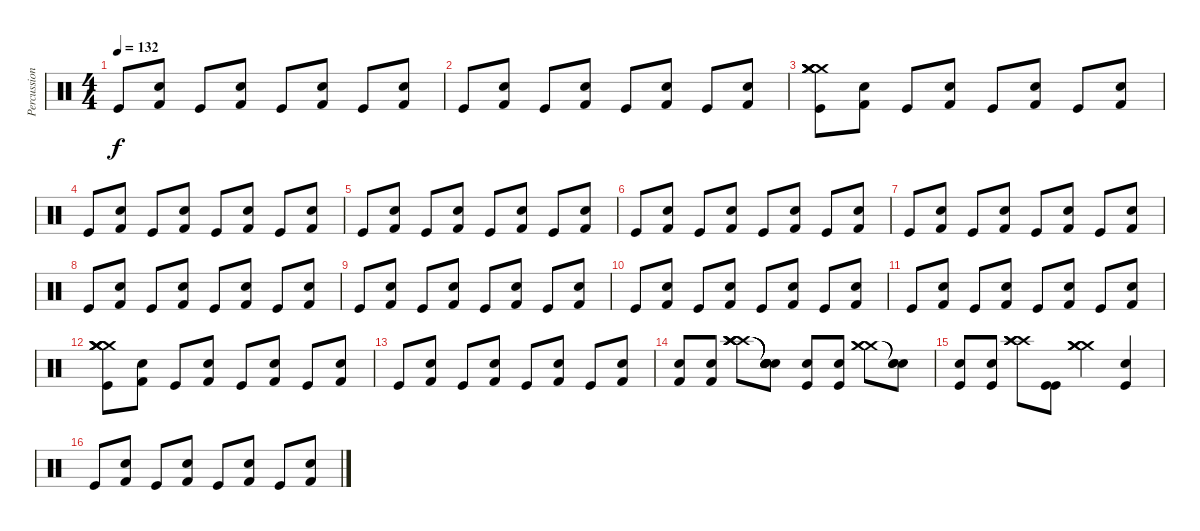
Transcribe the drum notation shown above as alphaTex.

\track ("Percussion" "Percussion") {instrument percussion}
\staff {score}
\articulation defaults
\ts (4 4)
\tempo 132
\clef neutral
\ks c "Kick (hit)".8{dy f}
("Electric Snare (hit)" "Kick (hit) 2").8 "Kick (hit)".8 ("Electric Snare (hit)" "Kick (hit) 2").8 "Kick (hit)".8 ("Electric Snare (hit)" "Kick (hit) 2").8 "Kick (hit)".8 ("Electric Snare (hit)" "Kick (hit) 2").8 |
"Kick (hit)".8 ("Electric Snare (hit)" "Kick (hit) 2").8 "Kick (hit)".8 ("Electric Snare (hit)" "Kick (hit) 2").8 "Kick (hit)".8 ("Electric Snare (hit)" "Kick (hit) 2").8 "Kick (hit)".8 ("Electric Snare (hit)" "Kick (hit) 2").8 |
("Kick (hit)" "Crash medium (hit)" "Crash medium (hit)" "Crash medium (hit)" "Crash medium (hit)" "Crash medium (hit)").8 ("Electric Snare (hit)" "Kick (hit) 2").8 "Kick (hit)".8 ("Electric Snare (hit)" "Kick (hit) 2").8 "Kick (hit)".8 ("Electric Snare (hit)" "Kick (hit) 2").8 "Kick (hit)".8 ("Electric Snare (hit)" "Kick (hit) 2").8 |
"Kick (hit)".8 ("Electric Snare (hit)" "Kick (hit) 2").8 "Kick (hit)".8 ("Electric Snare (hit)" "Kick (hit) 2").8 "Kick (hit)".8 ("Electric Snare (hit)" "Kick (hit) 2").8 "Kick (hit)".8 ("Electric Snare (hit)" "Kick (hit) 2").8 |
"Kick (hit)".8 ("Electric Snare (hit)" "Kick (hit) 2").8 "Kick (hit)".8 ("Electric Snare (hit)" "Kick (hit) 2").8 "Kick (hit)".8 ("Electric Snare (hit)" "Kick (hit) 2").8 "Kick (hit)".8 ("Electric Snare (hit)" "Kick (hit) 2").8 |
"Kick (hit)".8 ("Electric Snare (hit)" "Kick (hit) 2").8 "Kick (hit)".8 ("Electric Snare (hit)" "Kick (hit) 2").8 "Kick (hit)".8 ("Electric Snare (hit)" "Kick (hit) 2").8 "Kick (hit)".8 ("Electric Snare (hit)" "Kick (hit) 2").8 |
"Kick (hit)".8 ("Electric Snare (hit)" "Kick (hit) 2").8 "Kick (hit)".8 ("Electric Snare (hit)" "Kick (hit) 2").8 "Kick (hit)".8 ("Electric Snare (hit)" "Kick (hit) 2").8 "Kick (hit)".8 ("Electric Snare (hit)" "Kick (hit) 2").8 |
"Kick (hit)".8 ("Electric Snare (hit)" "Kick (hit) 2").8 "Kick (hit)".8 ("Electric Snare (hit)" "Kick (hit) 2").8 "Kick (hit)".8 ("Electric Snare (hit)" "Kick (hit) 2").8 "Kick (hit)".8 ("Electric Snare (hit)" "Kick (hit) 2").8 |
"Kick (hit)".8 ("Electric Snare (hit)" "Kick (hit) 2").8 "Kick (hit)".8 ("Electric Snare (hit)" "Kick (hit) 2").8 "Kick (hit)".8 ("Electric Snare (hit)" "Kick (hit) 2").8 "Kick (hit)".8 ("Electric Snare (hit)" "Kick (hit) 2").8 |
"Kick (hit)".8 ("Electric Snare (hit)" "Kick (hit) 2").8 "Kick (hit)".8 ("Electric Snare (hit)" "Kick (hit) 2").8 "Kick (hit)".8 ("Electric Snare (hit)" "Kick (hit) 2").8 "Kick (hit)".8 ("Electric Snare (hit)" "Kick (hit) 2").8 |
"Kick (hit)".8 ("Electric Snare (hit)" "Kick (hit) 2").8 "Kick (hit)".8 ("Electric Snare (hit)" "Kick (hit) 2").8 "Kick (hit)".8 ("Electric Snare (hit)" "Kick (hit) 2").8 "Kick (hit)".8 ("Electric Snare (hit)" "Kick (hit) 2").8 |
("Kick (hit)" "Crash medium (hit)" "Crash medium (hit)" "Crash medium (hit)" "Crash medium (hit)" "Crash medium (hit)").8 ("Electric Snare (hit)" "Kick (hit) 2").8 "Kick (hit)".8 ("Electric Snare (hit)" "Kick (hit) 2").8 "Kick (hit)".8 ("Electric Snare (hit)" "Kick (hit) 2").8 "Kick (hit)".8 ("Electric Snare (hit)" "Kick (hit) 2").8 |
"Kick (hit)".8 ("Electric Snare (hit)" "Kick (hit) 2").8 "Kick (hit)".8 ("Electric Snare (hit)" "Kick (hit) 2").8 "Kick (hit)".8 ("Electric Snare (hit)" "Kick (hit) 2").8 "Kick (hit)".8 ("Electric Snare (hit)" "Kick (hit) 2").8 |
("Electric Snare (hit)" "Kick (hit) 2").8 ("Electric Snare (hit)" "Kick (hit) 2").8 ("Crash high (hit)" "Crash high (hit)" "Crash high (hit)" "Crash high (hit)" "Crash high (hit)" "Crash high (hit)").8 ("Snare (hit)"{t} "Snare (hit)"{t} "Snare (hit)"{t} "Snare (hit)"{t} "Snare (hit)"{t} "Snare (hit)"{t}).8 ("Electric Snare (hit)" "Kick (hit)").8 ("Electric Snare (hit)" "Kick (hit)").8 ("Crash medium (hit)" "Crash medium (hit)" "Crash medium (hit)").8 ("Snare (hit)"{t} "Snare (hit)"{t} "Snare (hit)"{t}).8 |
("Electric Snare (hit)" "Kick (hit)").8 ("Kick (hit)" "Electric Snare (hit)").8 ("Crash high (hit)" "Crash high (hit)" "Crash high (hit)" "Crash high (hit)").8 ("Kick (hit)" "Kick (hit)").8 ("Crash medium (hit)" "Crash medium (hit)" "Crash medium (hit)" "Crash medium (hit)").4 ("Kick (hit)" "Electric Snare (hit)").4 |
"Kick (hit)".8 ("Electric Snare (hit)" "Kick (hit) 2").8 "Kick (hit)".8 ("Electric Snare (hit)" "Kick (hit) 2").8 "Kick (hit)".8 ("Electric Snare (hit)" "Kick (hit) 2").8 "Kick (hit)".8 ("Electric Snare (hit)" "Kick (hit) 2").8
